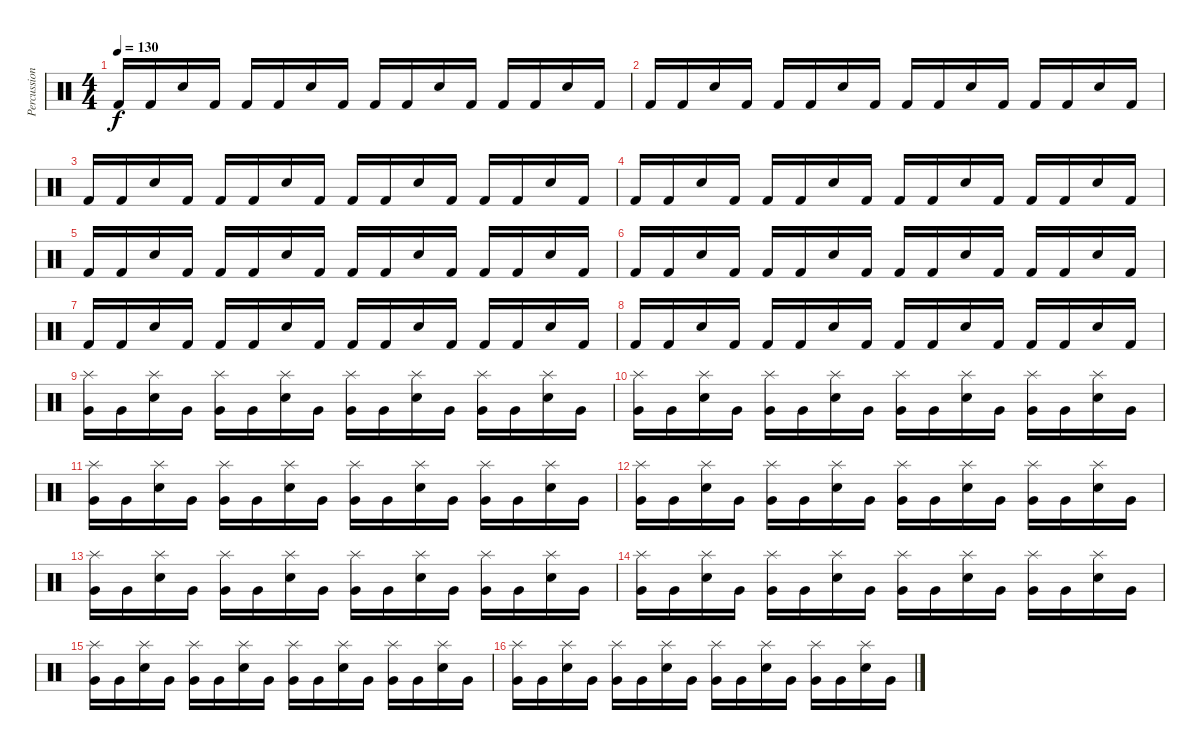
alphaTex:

\track ("Percussion" "Percussion") {instrument percussion}
\staff {score}
\articulation defaults
\ts (4 4)
\tempo 130
\clef neutral
\ks c "Kick (hit) 2".16{dy f} "Kick (hit) 2".16 "Snare (hit) 2".16 "Kick (hit) 2".16 "Kick (hit) 2".16 "Kick (hit) 2".16 "Snare (hit) 2".16 "Kick (hit) 2".16 "Kick (hit) 2".16 "Kick (hit) 2".16 "Snare (hit) 2".16 "Kick (hit) 2".16 "Kick (hit) 2".16 "Kick (hit) 2".16 "Snare (hit) 2".16 "Kick (hit) 2".16
|
"Kick (hit) 2".16 "Kick (hit) 2".16 "Snare (hit) 2".16 "Kick (hit) 2".16 "Kick (hit) 2".16 "Kick (hit) 2".16 "Snare (hit) 2".16 "Kick (hit) 2".16 "Kick (hit) 2".16 "Kick (hit) 2".16 "Snare (hit) 2".16 "Kick (hit) 2".16 "Kick (hit) 2".16 "Kick (hit) 2".16 "Snare (hit) 2".16 "Kick (hit) 2".16 |
"Kick (hit) 2".16 "Kick (hit) 2".16 "Snare (hit) 2".16 "Kick (hit) 2".16 "Kick (hit) 2".16 "Kick (hit) 2".16 "Snare (hit) 2".16 "Kick (hit) 2".16 "Kick (hit) 2".16 "Kick (hit) 2".16 "Snare (hit) 2".16 "Kick (hit) 2".16 "Kick (hit) 2".16 "Kick (hit) 2".16 "Snare (hit) 2".16 "Kick (hit) 2".16 |
"Kick (hit) 2".16 "Kick (hit) 2".16 "Snare (hit) 2".16 "Kick (hit) 2".16 "Kick (hit) 2".16 "Kick (hit) 2".16 "Snare (hit) 2".16 "Kick (hit) 2".16 "Kick (hit) 2".16 "Kick (hit) 2".16 "Snare (hit) 2".16 "Kick (hit) 2".16 "Kick (hit) 2".16 "Kick (hit) 2".16 "Snare (hit) 2".16 "Kick (hit) 2".16 |
"Kick (hit) 2".16 "Kick (hit) 2".16 "Snare (hit) 2".16 "Kick (hit) 2".16 "Kick (hit) 2".16 "Kick (hit) 2".16 "Snare (hit) 2".16 "Kick (hit) 2".16 "Kick (hit) 2".16 "Kick (hit) 2".16 "Snare (hit) 2".16 "Kick (hit) 2".16 "Kick (hit) 2".16 "Kick (hit) 2".16 "Snare (hit) 2".16 "Kick (hit) 2".16 |
"Kick (hit) 2".16 "Kick (hit) 2".16 "Snare (hit) 2".16 "Kick (hit) 2".16 "Kick (hit) 2".16 "Kick (hit) 2".16 "Snare (hit) 2".16 "Kick (hit) 2".16 "Kick (hit) 2".16 "Kick (hit) 2".16 "Snare (hit) 2".16 "Kick (hit) 2".16 "Kick (hit) 2".16 "Kick (hit) 2".16 "Snare (hit) 2".16 "Kick (hit) 2".16 |
"Kick (hit) 2".16 "Kick (hit) 2".16 "Snare (hit) 2".16 "Kick (hit) 2".16 "Kick (hit) 2".16 "Kick (hit) 2".16 "Snare (hit) 2".16 "Kick (hit) 2".16 "Kick (hit) 2".16 "Kick (hit) 2".16 "Snare (hit) 2".16 "Kick (hit) 2".16 "Kick (hit) 2".16 "Kick (hit) 2".16 "Snare (hit) 2".16 "Kick (hit) 2".16 |
"Kick (hit) 2".16 "Kick (hit) 2".16 "Snare (hit) 2".16 "Kick (hit) 2".16 "Kick (hit) 2".16 "Kick (hit) 2".16 "Snare (hit) 2".16 "Kick (hit) 2".16 "Kick (hit) 2".16 "Kick (hit) 2".16 "Snare (hit) 2".16 "Kick (hit) 2".16 "Kick (hit) 2".16 "Kick (hit) 2".16 "Snare (hit) 2".16 "Kick (hit) 2".16 |
("Very Low Tom (hit)" "Splash (hit)").16 "Very Low Tom (hit)".16 ("Snare (hit) 2" "Splash (hit)").16 "Very Low Tom (hit)".16 ("Very Low Tom (hit)" "Splash (hit)").16 "Very Low Tom (hit)".16 ("Snare (hit) 2" "Splash (hit)").16 "Very Low Tom (hit)".16 ("Very Low Tom (hit)" "Splash (hit)").16 "Very Low Tom (hit)".16 ("Snare (hit) 2" "Splash (hit)").16 "Very Low Tom (hit)".16 ("Very Low Tom (hit)" "Splash (hit)").16 "Very Low Tom (hit)".16 ("Snare (hit) 2" "Splash (hit)").16 "Very Low Tom (hit)".16 |
("Very Low Tom (hit)" "Splash (hit)").16 "Very Low Tom (hit)".16 ("Snare (hit) 2" "Splash (hit)").16 "Very Low Tom (hit)".16 ("Very Low Tom (hit)" "Splash (hit)").16 "Very Low Tom (hit)".16 ("Snare (hit) 2" "Splash (hit)").16 "Very Low Tom (hit)".16 ("Very Low Tom (hit)" "Splash (hit)").16 "Very Low Tom (hit)".16 ("Snare (hit) 2" "Splash (hit)").16 "Very Low Tom (hit)".16 ("Very Low Tom (hit)" "Splash (hit)").16 "Very Low Tom (hit)".16 ("Snare (hit) 2" "Splash (hit)").16 "Very Low Tom (hit)".16 |
("Very Low Tom (hit)" "Splash (hit)").16 "Very Low Tom (hit)".16 ("Snare (hit) 2" "Splash (hit)").16 "Very Low Tom (hit)".16 ("Very Low Tom (hit)" "Splash (hit)").16 "Very Low Tom (hit)".16 ("Snare (hit) 2" "Splash (hit)").16 "Very Low Tom (hit)".16 ("Very Low Tom (hit)" "Splash (hit)").16 "Very Low Tom (hit)".16 ("Snare (hit) 2" "Splash (hit)").16 "Very Low Tom (hit)".16 ("Very Low Tom (hit)" "Splash (hit)").16 "Very Low Tom (hit)".16 ("Snare (hit) 2" "Splash (hit)").16 "Very Low Tom (hit)".16 |
("Very Low Tom (hit)" "Splash (hit)").16 "Very Low Tom (hit)".16 ("Snare (hit) 2" "Splash (hit)").16 "Very Low Tom (hit)".16 ("Very Low Tom (hit)" "Splash (hit)").16 "Very Low Tom (hit)".16 ("Snare (hit) 2" "Splash (hit)").16 "Very Low Tom (hit)".16 ("Very Low Tom (hit)" "Splash (hit)").16 "Very Low Tom (hit)".16 ("Snare (hit) 2" "Splash (hit)").16 "Very Low Tom (hit)".16 ("Very Low Tom (hit)" "Splash (hit)").16 "Very Low Tom (hit)".16 ("Snare (hit) 2" "Splash (hit)").16 "Very Low Tom (hit)".16 |
("Very Low Tom (hit)" "Splash (hit)").16 "Very Low Tom (hit)".16 ("Snare (hit) 2" "Splash (hit)").16 "Very Low Tom (hit)".16 ("Very Low Tom (hit)" "Splash (hit)").16 "Very Low Tom (hit)".16 ("Snare (hit) 2" "Splash (hit)").16 "Very Low Tom (hit)".16 ("Very Low Tom (hit)" "Splash (hit)").16 "Very Low Tom (hit)".16 ("Snare (hit) 2" "Splash (hit)").16 "Very Low Tom (hit)".16 ("Very Low Tom (hit)" "Splash (hit)").16 "Very Low Tom (hit)".16 ("Snare (hit) 2" "Splash (hit)").16 "Very Low Tom (hit)".16 |
("Very Low Tom (hit)" "Splash (hit)").16 "Very Low Tom (hit)".16 ("Snare (hit) 2" "Splash (hit)").16 "Very Low Tom (hit)".16 ("Very Low Tom (hit)" "Splash (hit)").16 "Very Low Tom (hit)".16 ("Snare (hit) 2" "Splash (hit)").16 "Very Low Tom (hit)".16 ("Very Low Tom (hit)" "Splash (hit)").16 "Very Low Tom (hit)".16 ("Snare (hit) 2" "Splash (hit)").16 "Very Low Tom (hit)".16 ("Very Low Tom (hit)" "Splash (hit)").16 "Very Low Tom (hit)".16 ("Snare (hit) 2" "Splash (hit)").16 "Very Low Tom (hit)".16 |
("Very Low Tom (hit)" "Splash (hit)").16 "Very Low Tom (hit)".16 ("Snare (hit) 2" "Splash (hit)").16 "Very Low Tom (hit)".16 ("Very Low Tom (hit)" "Splash (hit)").16 "Very Low Tom (hit)".16 ("Snare (hit) 2" "Splash (hit)").16 "Very Low Tom (hit)".16 ("Very Low Tom (hit)" "Splash (hit)").16 "Very Low Tom (hit)".16 ("Snare (hit) 2" "Splash (hit)").16 "Very Low Tom (hit)".16 ("Very Low Tom (hit)" "Splash (hit)").16 "Very Low Tom (hit)".16 ("Snare (hit) 2" "Splash (hit)").16 "Very Low Tom (hit)".16 |
("Very Low Tom (hit)" "Splash (hit)").16 "Very Low Tom (hit)".16 ("Snare (hit) 2" "Splash (hit)").16 "Very Low Tom (hit)".16 ("Very Low Tom (hit)" "Splash (hit)").16 "Very Low Tom (hit)".16 ("Snare (hit) 2" "Splash (hit)").16 "Very Low Tom (hit)".16 ("Very Low Tom (hit)" "Splash (hit)").16 "Very Low Tom (hit)".16 ("Snare (hit) 2" "Splash (hit)").16 "Very Low Tom (hit)".16 ("Very Low Tom (hit)" "Splash (hit)").16 "Very Low Tom (hit)".16 ("Snare (hit) 2" "Splash (hit)").16 "Very Low Tom (hit)".16
